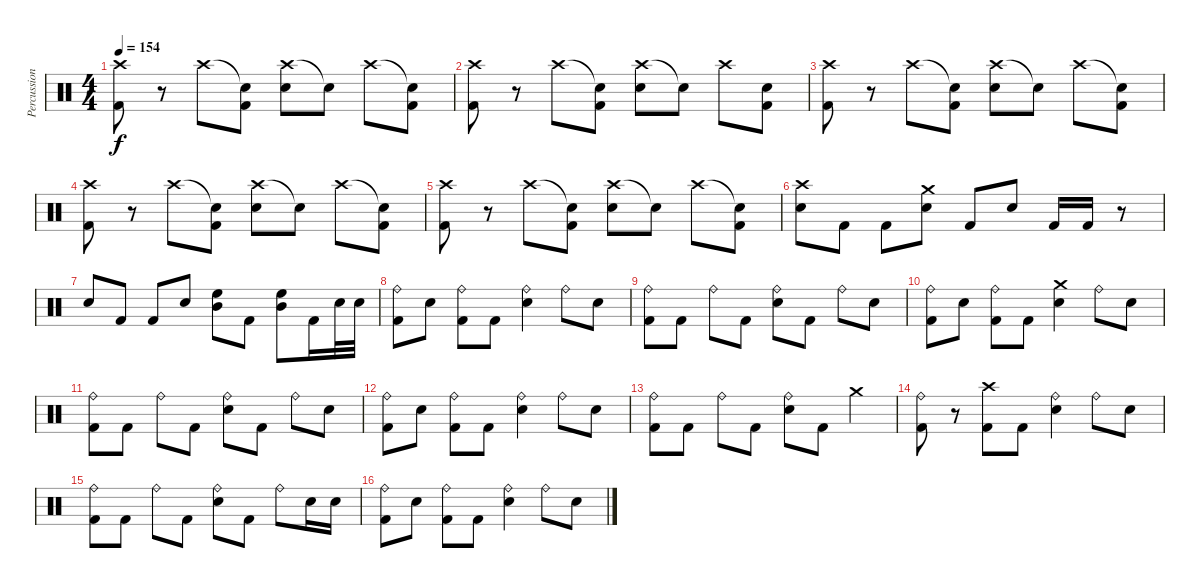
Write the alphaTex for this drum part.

\track ("Percussion" "Percussion") {instrument percussion}
\staff {score}
\articulation defaults
\ts (4 4)
\tempo 154
\clef neutral
\ks c
("Crash high (hit)" "Kick (hit) 2").8{dy f} r.8 "Crash high (hit)".8 ("Snare (hit)"{t} "Kick (hit) 2").8 ("Crash high (hit)" "Snare (hit) 2").8 "Snare (hit)"{t}.8 "Crash high (hit)".8 ("Snare (hit)"{t} "Kick (hit) 2").8 |
("Crash high (hit)" "Kick (hit) 2").8 r.8 "Crash high (hit)".8 ("Snare (hit)"{t} "Kick (hit) 2").8 ("Crash high (hit)" "Snare (hit) 2").8 "Snare (hit)"{t}.8 "Crash high (hit)".8 ("Snare (hit) 2" "Kick (hit) 2").8 |
("Crash high (hit)" "Kick (hit) 2").8 r.8 "Crash high (hit)".8 ("Snare (hit)"{t} "Kick (hit) 2").8 ("Crash high (hit)" "Snare (hit) 2").8 "Snare (hit)"{t}.8 "Crash high (hit)".8 ("Snare (hit)"{t} "Kick (hit) 2").8 |
("Crash high (hit)" "Kick (hit) 2").8 r.8 "Crash high (hit)".8 ("Snare (hit)"{t} "Kick (hit) 2").8 ("Crash high (hit)" "Snare (hit) 2").8 "Snare (hit)"{t}.8 "Crash high (hit)".8 ("Snare (hit)"{t} "Kick (hit) 2").8 |
("Crash high (hit)" "Kick (hit) 2").8 r.8 "Crash high (hit)".8 ("Snare (hit)"{t} "Kick (hit) 2").8 ("Crash high (hit)" "Snare (hit) 2").8 "Snare (hit)"{t}.8 "Crash high (hit)".8 ("Snare (hit)"{t} "Kick (hit) 2").8 |
("Crash high (hit)" "Snare (hit) 2").8 "Kick (hit) 2".8 "Kick (hit) 2".8 ("Crash medium (hit)" "Snare (hit) 2").8 "Kick (hit) 2".8 "Snare (hit) 2".8 "Kick (hit) 2".16 "Kick (hit) 2".16 r.8 |
"Snare (hit) 2".8 "Kick (hit) 2".8 "Kick (hit) 2".8 "Snare (hit) 2".8 ("Mid Tom (hit)" "High Floor Tom (hit)").8 "Kick (hit) 2".8 ("Mid Tom (hit)" "High Floor Tom (hit)").8 "Kick (hit) 2".16 "Snare (hit) 2".32 "Snare (hit) 2".32 |
("Ride (bell)" "Kick (hit) 2").8 "Snare (hit) 2".8 ("Ride (bell)" "Kick (hit) 2").8 "Kick (hit) 2".8 ("Ride (bell)" "Snare (hit) 2").4 "Ride (bell)".8 "Snare (hit) 2".8 |
("Ride (bell)" "Kick (hit) 2").8 "Kick (hit) 2".8 "Ride (bell)".8 "Kick (hit) 2".8 ("Ride (bell)" "Snare (hit) 2").8 "Kick (hit) 2".8 "Ride (bell)".8 "Snare (hit) 2".8 |
("Ride (bell)" "Kick (hit) 2").8 "Snare (hit) 2".8 ("Ride (bell)" "Kick (hit) 2").8 "Kick (hit) 2".8 ("Crash medium (hit)" "Snare (hit) 2").4 "Ride (bell)".8 "Snare (hit) 2".8 |
("Ride (bell)" "Kick (hit) 2").8 "Kick (hit) 2".8 "Ride (bell)".8 "Kick (hit) 2".8 ("Ride (bell)" "Snare (hit) 2").8 "Kick (hit) 2".8 "Ride (bell)".8 "Snare (hit) 2".8 |
("Ride (bell)" "Kick (hit) 2").8 "Snare (hit) 2".8 ("Ride (bell)" "Kick (hit) 2").8 "Kick (hit) 2".8 ("Ride (bell)" "Snare (hit) 2").4 "Ride (bell)".8 "Snare (hit) 2".8 |
("Ride (bell)" "Kick (hit) 2").8 "Kick (hit) 2".8 "Ride (bell)".8 "Kick (hit) 2".8 ("Ride (bell)" "Snare (hit) 2").8 "Kick (hit) 2".8 "Crash medium (hit)".4 |
("Ride (bell)" "Kick (hit) 2").8 r.8 ("Crash high (hit)" "Kick (hit) 2").8 "Kick (hit) 2".8 ("Ride (bell)" "Snare (hit) 2").4 "Ride (bell)".8 "Snare (hit) 2".8 |
("Ride (bell)" "Kick (hit) 2").8 "Kick (hit) 2".8 "Ride (bell)".8 "Kick (hit) 2".8 ("Ride (bell)" "Snare (hit) 2").8 "Kick (hit) 2".8 "Ride (bell)".8 "Snare (hit) 2".16 "Snare (hit) 2".16 |
("Ride (bell)" "Kick (hit) 2").8 "Snare (hit) 2".8 ("Ride (bell)" "Kick (hit) 2").8 "Kick (hit) 2".8 ("Ride (bell)" "Snare (hit) 2").4 "Ride (bell)".8 "Snare (hit) 2".8
